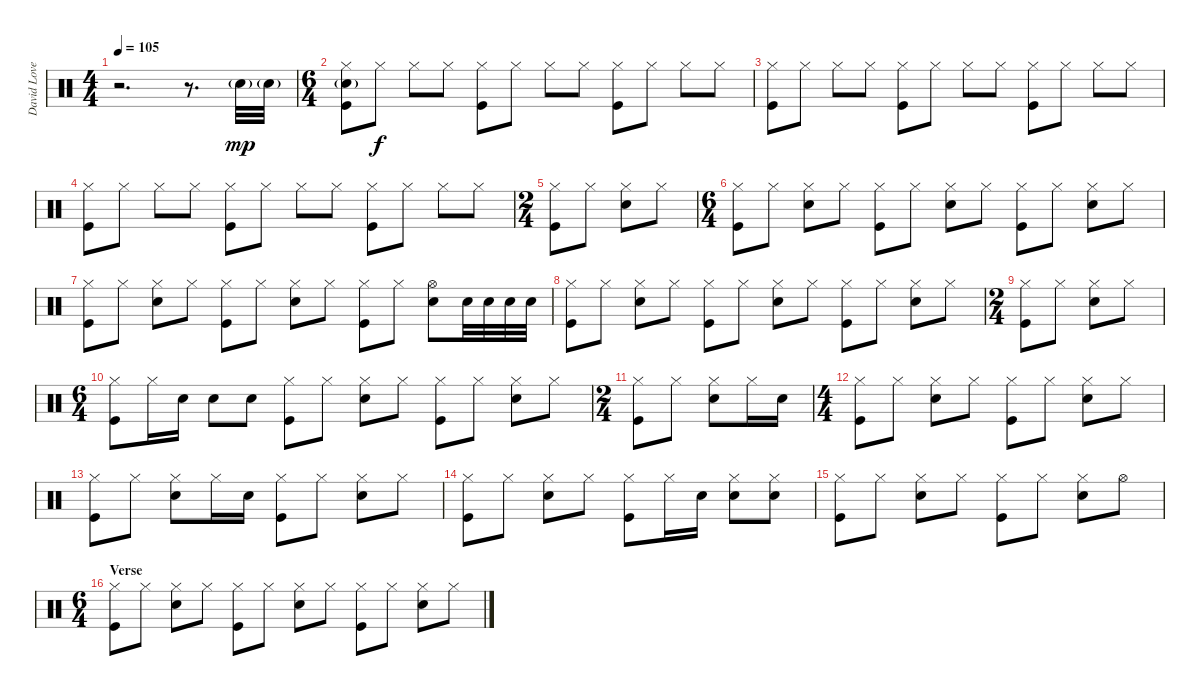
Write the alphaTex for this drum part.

\track ("David Lovering" "David Love") {instrument percussion}
\staff {score}
\articulation defaults
\ts (4 4)
\tempo 105
\clef neutral
\ks c
r.2{d dy mp} r.8{d} "Snare (hit) 2"{g}.32 "Snare (hit) 2"{g}.32 |
\ts (6 4)
("Hi-Hat (closed)" "Snare (hit) 2"{g} "Kick (hit)").8 "Hi-Hat (closed)".8{dy f} "Hi-Hat (closed)".8 "Hi-Hat (closed)".8 ("Hi-Hat (closed)" "Kick (hit)").8 "Hi-Hat (closed)".8 "Hi-Hat (closed)".8 "Hi-Hat (closed)".8 ("Hi-Hat (closed)" "Kick (hit)").8 "Hi-Hat (closed)".8 "Hi-Hat (closed)".8 "Hi-Hat (closed)".8 |
("Hi-Hat (closed)" "Kick (hit)").8 "Hi-Hat (closed)".8 "Hi-Hat (closed)".8 "Hi-Hat (closed)".8 ("Hi-Hat (closed)" "Kick (hit)").8 "Hi-Hat (closed)".8 "Hi-Hat (closed)".8 "Hi-Hat (closed)".8 ("Hi-Hat (closed)" "Kick (hit)").8 "Hi-Hat (closed)".8 "Hi-Hat (closed)".8 "Hi-Hat (closed)".8 |
("Hi-Hat (closed)" "Kick (hit)").8 "Hi-Hat (closed)".8 "Hi-Hat (closed)".8 "Hi-Hat (closed)".8 ("Hi-Hat (closed)" "Kick (hit)").8 "Hi-Hat (closed)".8 "Hi-Hat (closed)".8 "Hi-Hat (closed)".8 ("Hi-Hat (closed)" "Kick (hit)").8 "Hi-Hat (closed)".8 "Hi-Hat (closed)".8 "Hi-Hat (closed)".8 |
\ts (2 4)
("Hi-Hat (closed)" "Kick (hit)").8 "Hi-Hat (closed)".8 ("Hi-Hat (closed)" "Snare (hit) 2").8 "Hi-Hat (closed)".8 |
\ts (6 4)
("Hi-Hat (closed)" "Kick (hit)").8 "Hi-Hat (closed)".8 ("Hi-Hat (closed)" "Snare (hit) 2").8 "Hi-Hat (closed)".8 ("Hi-Hat (closed)" "Kick (hit)").8 "Hi-Hat (closed)".8 ("Hi-Hat (closed)" "Snare (hit) 2").8 "Hi-Hat (closed)".8 ("Hi-Hat (closed)" "Kick (hit)").8 "Hi-Hat (closed)".8 ("Hi-Hat (closed)" "Snare (hit) 2").8 "Hi-Hat (closed)".8 |
("Hi-Hat (closed)" "Kick (hit)").8 "Hi-Hat (closed)".8 ("Hi-Hat (closed)" "Snare (hit) 2").8 "Hi-Hat (closed)".8 ("Hi-Hat (closed)" "Kick (hit)").8 "Hi-Hat (closed)".8 ("Hi-Hat (closed)" "Snare (hit) 2").8 "Hi-Hat (closed)".8 ("Hi-Hat (closed)" "Kick (hit)").8 "Hi-Hat (closed)".8 ("Hi-Hat (open)" "Snare (hit) 2").8 "Snare (hit) 2".32 "Snare (hit) 2".32 "Snare (hit) 2".32 "Snare (hit) 2".32 |
("Hi-Hat (closed)" "Kick (hit)").8 "Hi-Hat (closed)".8 ("Hi-Hat (closed)" "Snare (hit) 2").8 "Hi-Hat (closed)".8 ("Hi-Hat (closed)" "Kick (hit)").8 "Hi-Hat (closed)".8 ("Hi-Hat (closed)" "Snare (hit) 2").8 "Hi-Hat (closed)".8 ("Hi-Hat (closed)" "Kick (hit)").8 "Hi-Hat (closed)".8 ("Hi-Hat (closed)" "Snare (hit) 2").8 "Hi-Hat (closed)".8 |
\ts (2 4)
("Hi-Hat (closed)" "Kick (hit)").8 "Hi-Hat (closed)".8 ("Hi-Hat (closed)" "Snare (hit) 2").8 "Hi-Hat (closed)".8 |
\ts (6 4)
("Hi-Hat (closed)" "Kick (hit)").8 "Hi-Hat (closed)".16 "Snare (hit) 2".16 "Snare (hit) 2".8 "Snare (hit) 2".8 ("Hi-Hat (closed)" "Kick (hit)").8 "Hi-Hat (closed)".8 ("Hi-Hat (closed)" "Snare (hit) 2").8 "Hi-Hat (closed)".8 ("Hi-Hat (closed)" "Kick (hit)").8 "Hi-Hat (closed)".8 ("Hi-Hat (closed)" "Snare (hit) 2").8 "Hi-Hat (closed)".8 |
\ts (2 4)
("Hi-Hat (closed)" "Kick (hit)").8 "Hi-Hat (closed)".8 ("Hi-Hat (closed)" "Snare (hit) 2").8 "Hi-Hat (closed)".16 "Snare (hit) 2".16 |
\ts (4 4)
("Hi-Hat (closed)" "Kick (hit)").8 "Hi-Hat (closed)".8 ("Hi-Hat (closed)" "Snare (hit) 2").8 "Hi-Hat (closed)".8 ("Hi-Hat (closed)" "Kick (hit)").8 "Hi-Hat (closed)".8 ("Hi-Hat (closed)" "Snare (hit) 2").8 "Hi-Hat (closed)".8 |
("Hi-Hat (closed)" "Kick (hit)").8 "Hi-Hat (closed)".8 ("Hi-Hat (closed)" "Snare (hit) 2").8 "Hi-Hat (closed)".16 "Snare (hit) 2".16 ("Hi-Hat (closed)" "Kick (hit)").8 "Hi-Hat (closed)".8 ("Hi-Hat (closed)" "Snare (hit) 2").8 "Hi-Hat (closed)".8 |
("Hi-Hat (closed)" "Kick (hit)").8 "Hi-Hat (closed)".8 ("Hi-Hat (closed)" "Snare (hit) 2").8 "Hi-Hat (closed)".8 ("Hi-Hat (closed)" "Kick (hit)").8 "Hi-Hat (closed)".16 "Snare (hit) 2".16 ("Hi-Hat (closed)" "Snare (hit) 2").8 ("Hi-Hat (closed)" "Snare (hit) 2").8 |
("Hi-Hat (closed)" "Kick (hit)").8 "Hi-Hat (closed)".8 ("Hi-Hat (closed)" "Snare (hit) 2").8 "Hi-Hat (closed)".8 ("Hi-Hat (closed)" "Kick (hit)").8 "Hi-Hat (closed)".8 ("Hi-Hat (closed)" "Snare (hit) 2").8 "Hi-Hat (open)".8 |
\ts (6 4)
\section ("" "Verse")
("Hi-Hat (closed)" "Kick (hit)").8 "Hi-Hat (closed)".8 ("Hi-Hat (closed)" "Snare (hit) 2").8 "Hi-Hat (closed)".8 ("Hi-Hat (closed)" "Kick (hit)").8 "Hi-Hat (closed)".8 ("Hi-Hat (closed)" "Snare (hit) 2").8 "Hi-Hat (closed)".8 ("Hi-Hat (closed)" "Kick (hit)").8 "Hi-Hat (closed)".8 ("Hi-Hat (closed)" "Snare (hit) 2").8 "Hi-Hat (closed)".8
